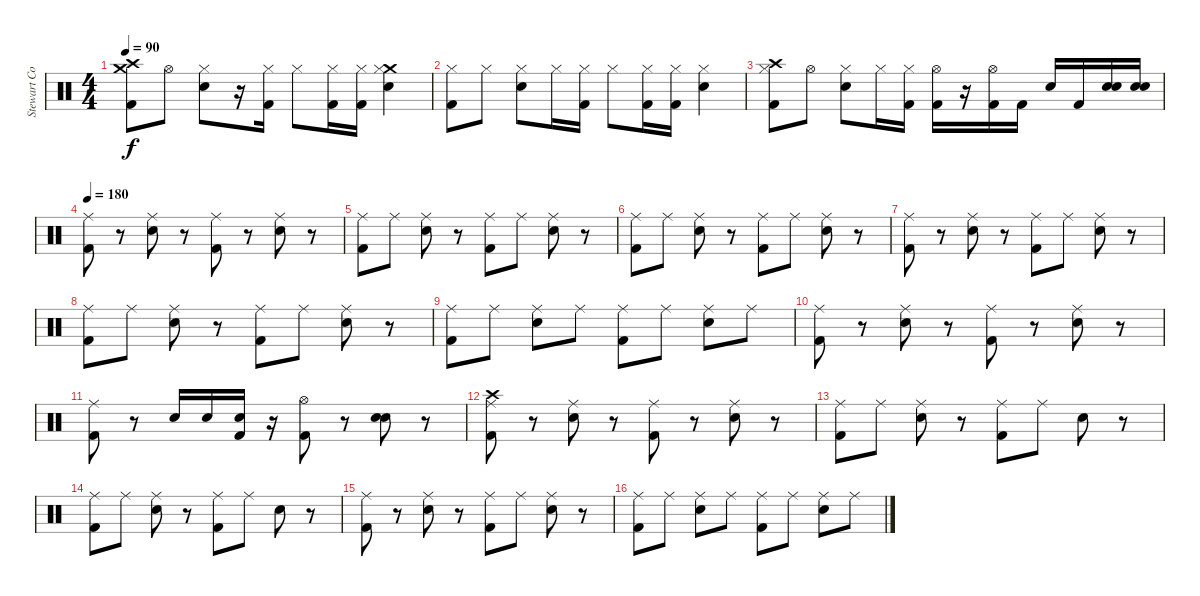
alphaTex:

\track ("Stewart Copeland" "Stewart Co") {instrument percussion}
\staff {score}
\articulation defaults
\ts (4 4)
\tempo 90
\clef neutral
\ks c
("Crash high (hit)" "Crash medium (hit)" "Kick (hit) 2").8{dy f} "Hi-Hat (open)".8 ("Hi-Hat (closed)" "Electric Snare (hit)").8 r.16 ("Hi-Hat (closed)" "Kick (hit) 2").16 "Hi-Hat (closed)".8 ("Hi-Hat (closed)" "Kick (hit) 2").16 ("Hi-Hat (closed)" "Kick (hit) 2").16 ("Crash medium (hit)" "Hi-Hat (closed)" "Electric Snare (hit)").4 |
("Hi-Hat (closed)" "Kick (hit) 2").8 "Hi-Hat (closed)".8 ("Hi-Hat (closed)" "Electric Snare (hit)").8 "Hi-Hat (closed)".16 ("Hi-Hat (closed)" "Kick (hit) 2").16 "Hi-Hat (closed)".8 ("Hi-Hat (closed)" "Kick (hit) 2").16 ("Hi-Hat (closed)" "Kick (hit) 2").16 ("Hi-Hat (closed)" "Electric Snare (hit)").4 |
("Crash high (hit)" "Hi-Hat (closed)" "Kick (hit) 2").8 "Hi-Hat (open)".8 ("Hi-Hat (closed)" "Electric Snare (hit)").8 "Hi-Hat (closed)".16 ("Hi-Hat (closed)" "Kick (hit) 2").16 ("Hi-Hat (open)" "Kick (hit) 2").16 r.16 ("Hi-Hat (open)" "Kick (hit) 2").16 "Kick (hit) 2".16 "Electric Snare (hit)".16 "Kick (hit) 2".16 ("Electric Snare (hit)" "Electric Snare (hit)").16 ("Electric Snare (hit)" "Electric Snare (hit)").16 |
\tempo 180
("Ride (middle)" "Kick (hit) 2").8 r.8 ("Ride (middle)" "Electric Snare (hit)").8 r.8 ("Ride (middle)" "Kick (hit) 2").8 r.8 ("Ride (middle)" "Electric Snare (hit)").8 r.8 |
("Ride (middle)" "Kick (hit) 2").8 "Ride (middle)".8 ("Ride (middle)" "Electric Snare (hit)").8 r.8 ("Ride (middle)" "Kick (hit) 2").8 "Ride (middle)".8 ("Ride (middle)" "Electric Snare (hit)").8 r.8 |
("Ride (middle)" "Kick (hit) 2").8 "Ride (middle)".8 ("Ride (middle)" "Electric Snare (hit)").8 r.8 ("Ride (middle)" "Kick (hit) 2").8 "Ride (middle)".8 ("Ride (middle)" "Electric Snare (hit)").8 r.8 |
("Ride (middle)" "Kick (hit) 2").8 r.8 ("Ride (middle)" "Electric Snare (hit)").8 r.8 ("Ride (middle)" "Kick (hit) 2").8 "Ride (middle)".8 ("Ride (middle)" "Electric Snare (hit)").8 r.8 |
("Ride (middle)" "Kick (hit) 2").8 "Ride (middle)".8 ("Ride (middle)" "Electric Snare (hit)").8 r.8 ("Ride (middle)" "Kick (hit) 2").8 "Ride (middle)".8 ("Ride (middle)" "Electric Snare (hit)").8 r.8 |
("Ride (middle)" "Kick (hit) 2").8 "Ride (middle)".8 ("Ride (middle)" "Electric Snare (hit)").8 "Ride (middle)".8 ("Ride (middle)" "Kick (hit) 2").8 "Ride (middle)".8 ("Ride (middle)" "Electric Snare (hit)").8 "Ride (middle)".8 |
("Ride (middle)" "Kick (hit) 2").8 r.8 ("Ride (middle)" "Electric Snare (hit)").8 r.8 ("Ride (middle)" "Kick (hit) 2").8 r.8 ("Ride (middle)" "Electric Snare (hit)").8 r.8 |
("Ride (middle)" "Kick (hit) 2").8 r.8 "Electric Snare (hit)".16 "Electric Snare (hit)".16 ("Electric Snare (hit)" "Kick (hit) 2").16 r.16 ("Hi-Hat (open)" "Kick (hit) 2").8 r.8 ("Electric Snare (hit)" "Electric Snare (hit)").8 r.8 |
("Crash high (hit)" "Ride (middle)" "Kick (hit) 2").8 r.8 ("Ride (middle)" "Electric Snare (hit)").8 r.8 ("Ride (middle)" "Kick (hit) 2").8 r.8 ("Ride (middle)" "Electric Snare (hit)").8 r.8 |
("Ride (middle)" "Kick (hit) 2").8 "Ride (middle)".8 ("Ride (middle)" "Electric Snare (hit)").8 r.8 ("Ride (middle)" "Kick (hit) 2").8 "Ride (middle)".8 "Electric Snare (hit)".8 r.8 |
("Ride (middle)" "Kick (hit) 2").8 "Ride (middle)".8 ("Ride (middle)" "Electric Snare (hit)").8 r.8 ("Ride (middle)" "Kick (hit) 2").8 "Ride (middle)".8 "Electric Snare (hit)".8 r.8 |
("Ride (middle)" "Kick (hit) 2").8 r.8 ("Ride (middle)" "Electric Snare (hit)").8 r.8 ("Ride (middle)" "Kick (hit) 2").8 "Ride (middle)".8 ("Ride (middle)" "Electric Snare (hit)").8 r.8 |
("Ride (middle)" "Kick (hit) 2").8 "Ride (middle)".8 ("Ride (middle)" "Electric Snare (hit)").8 "Ride (middle)".8 ("Ride (middle)" "Kick (hit) 2").8 "Ride (middle)".8 ("Ride (middle)" "Electric Snare (hit)").8 "Ride (middle)".8
